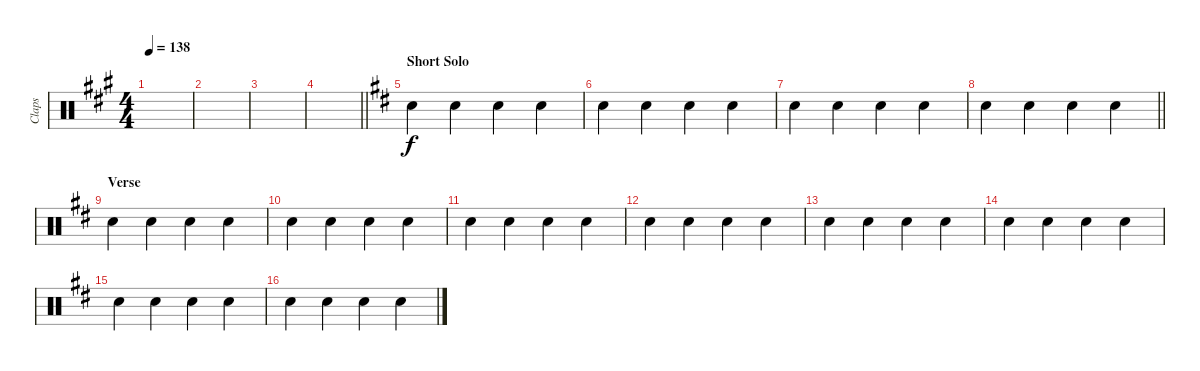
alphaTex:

\track ("Claps" "Claps") {instrument percussion}
\staff {score}
\articulation defaults
\ts (4 4)
\tempo 138
\clef neutral
\ks a
|
|
|
\barLineRight lightlight
|
\section ("" "Short Solo")
\ks d "Hand Clap (hit)".4 "Hand Clap (hit)".4 "Hand Clap (hit)".4 "Hand Clap (hit)".4
|
"Hand Clap (hit)".4 "Hand Clap (hit)".4 "Hand Clap (hit)".4 "Hand Clap (hit)".4 |
"Hand Clap (hit)".4 "Hand Clap (hit)".4 "Hand Clap (hit)".4 "Hand Clap (hit)".4 |
\barLineRight lightlight "Hand Clap (hit)".4 "Hand Clap (hit)".4 "Hand Clap (hit)".4 "Hand Clap (hit)".4
|
\section ("" "Verse")
"Hand Clap (hit)".4 "Hand Clap (hit)".4 "Hand Clap (hit)".4 "Hand Clap (hit)".4 |
"Hand Clap (hit)".4 "Hand Clap (hit)".4 "Hand Clap (hit)".4 "Hand Clap (hit)".4 |
"Hand Clap (hit)".4 "Hand Clap (hit)".4 "Hand Clap (hit)".4 "Hand Clap (hit)".4 |
"Hand Clap (hit)".4 "Hand Clap (hit)".4 "Hand Clap (hit)".4 "Hand Clap (hit)".4 |
"Hand Clap (hit)".4 "Hand Clap (hit)".4 "Hand Clap (hit)".4 "Hand Clap (hit)".4 |
"Hand Clap (hit)".4 "Hand Clap (hit)".4 "Hand Clap (hit)".4 "Hand Clap (hit)".4 |
"Hand Clap (hit)".4 "Hand Clap (hit)".4 "Hand Clap (hit)".4 "Hand Clap (hit)".4 |
"Hand Clap (hit)".4 "Hand Clap (hit)".4 "Hand Clap (hit)".4 "Hand Clap (hit)".4
